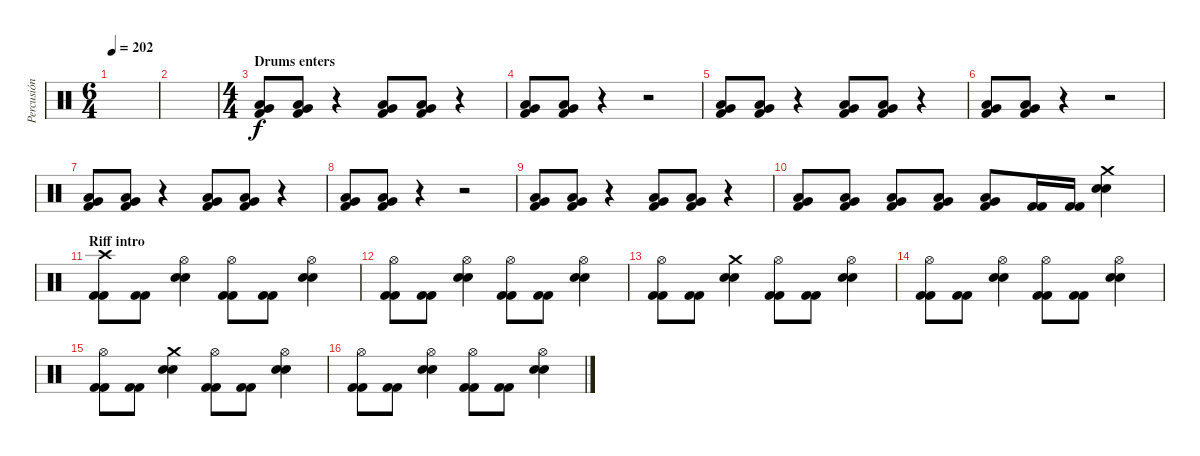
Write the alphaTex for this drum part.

\track ("Percusión" "Percusión") {instrument percussion}
\staff {score}
\articulation defaults
\ts (6 4)
\tempo 202
\clef neutral
\ks c
|
|
\ts (4 4)
\section ("" "Drums enters")
("Very Low Tom (hit)" "Low Tom (hit)" "Kick (hit) 2").8 ("Very Low Tom (hit)" "Low Tom (hit)" "Kick (hit) 2").8 r.4 ("Very Low Tom (hit)" "Low Tom (hit)" "Kick (hit) 2").8 ("Very Low Tom (hit)" "Low Tom (hit)" "Kick (hit) 2").8 r.4 |
("Very Low Tom (hit)" "Low Tom (hit)" "Kick (hit) 2").8 ("Very Low Tom (hit)" "Low Tom (hit)" "Kick (hit) 2").8 r.4 r.2 |
("Very Low Tom (hit)" "Low Tom (hit)" "Kick (hit) 2").8 ("Very Low Tom (hit)" "Low Tom (hit)" "Kick (hit) 2").8 r.4 ("Very Low Tom (hit)" "Low Tom (hit)" "Kick (hit) 2").8 ("Very Low Tom (hit)" "Low Tom (hit)" "Kick (hit) 2").8 r.4 |
("Very Low Tom (hit)" "Low Tom (hit)" "Kick (hit) 2").8 ("Very Low Tom (hit)" "Low Tom (hit)" "Kick (hit) 2").8 r.4 r.2 |
("Very Low Tom (hit)" "Low Tom (hit)" "Kick (hit) 2").8 ("Very Low Tom (hit)" "Low Tom (hit)" "Kick (hit) 2").8 r.4 ("Very Low Tom (hit)" "Low Tom (hit)" "Kick (hit) 2").8 ("Very Low Tom (hit)" "Low Tom (hit)" "Kick (hit) 2").8 r.4 |
("Very Low Tom (hit)" "Low Tom (hit)" "Kick (hit) 2").8 ("Very Low Tom (hit)" "Low Tom (hit)" "Kick (hit) 2").8 r.4 r.2 |
("Very Low Tom (hit)" "Low Tom (hit)" "Kick (hit) 2").8 ("Very Low Tom (hit)" "Low Tom (hit)" "Kick (hit) 2").8 r.4 ("Very Low Tom (hit)" "Low Tom (hit)" "Kick (hit) 2").8 ("Very Low Tom (hit)" "Low Tom (hit)" "Kick (hit) 2").8 r.4 |
("Very Low Tom (hit)" "Low Tom (hit)" "Kick (hit) 2").8 ("Very Low Tom (hit)" "Low Tom (hit)" "Kick (hit) 2").8 ("Very Low Tom (hit)" "Low Tom (hit)" "Kick (hit) 2").8 ("Very Low Tom (hit)" "Low Tom (hit)" "Kick (hit) 2").8 ("Very Low Tom (hit)" "Low Tom (hit)" "Kick (hit) 2").8 ("Kick (hit) 2" "Kick (hit) 2").16 ("Kick (hit) 2" "Kick (hit) 2").16 ("Crash medium (hit)" "Snare (hit) 2" "Snare (hit) 2").4 |
\section ("" "Riff intro")
("Crash high (hit)" "Kick (hit) 2" "Kick (hit) 2").8 ("Kick (hit) 2" "Kick (hit) 2").8 ("Hi-Hat (open)" "Snare (hit) 2" "Snare (hit) 2").4 ("Hi-Hat (open)" "Kick (hit) 2" "Kick (hit) 2").8 ("Kick (hit) 2" "Kick (hit) 2").8 ("Hi-Hat (open)" "Snare (hit) 2" "Snare (hit) 2").4 |
("Hi-Hat (open)" "Kick (hit) 2" "Kick (hit) 2").8 ("Kick (hit) 2" "Kick (hit) 2").8 ("Hi-Hat (open)" "Snare (hit) 2" "Snare (hit) 2").4 ("Hi-Hat (open)" "Kick (hit) 2" "Kick (hit) 2").8 ("Kick (hit) 2" "Kick (hit) 2").8 ("Hi-Hat (open)" "Snare (hit) 2" "Snare (hit) 2").4 |
("Hi-Hat (open)" "Kick (hit) 2" "Kick (hit) 2").8 ("Kick (hit) 2" "Kick (hit) 2").8 ("Crash medium (hit)" "Snare (hit) 2" "Snare (hit) 2").4 ("Hi-Hat (open)" "Kick (hit) 2" "Kick (hit) 2").8 ("Kick (hit) 2" "Kick (hit) 2").8 ("Hi-Hat (open)" "Snare (hit) 2" "Snare (hit) 2").4 |
("Hi-Hat (open)" "Kick (hit) 2" "Kick (hit) 2").8 ("Kick (hit) 2" "Kick (hit) 2").8 ("Hi-Hat (open)" "Snare (hit) 2" "Snare (hit) 2").4 ("Hi-Hat (open)" "Kick (hit) 2" "Kick (hit) 2").8 ("Kick (hit) 2" "Kick (hit) 2").8 ("Hi-Hat (open)" "Snare (hit) 2" "Snare (hit) 2").4 |
("Hi-Hat (open)" "Kick (hit) 2" "Kick (hit) 2").8 ("Kick (hit) 2" "Kick (hit) 2").8 ("Crash medium (hit)" "Snare (hit) 2" "Snare (hit) 2").4 ("Hi-Hat (open)" "Kick (hit) 2" "Kick (hit) 2").8 ("Kick (hit) 2" "Kick (hit) 2").8 ("Hi-Hat (open)" "Snare (hit) 2" "Snare (hit) 2").4 |
("Hi-Hat (open)" "Kick (hit) 2" "Kick (hit) 2").8 ("Kick (hit) 2" "Kick (hit) 2").8 ("Hi-Hat (open)" "Snare (hit) 2" "Snare (hit) 2").4 ("Hi-Hat (open)" "Kick (hit) 2" "Kick (hit) 2").8 ("Kick (hit) 2" "Kick (hit) 2").8 ("Hi-Hat (open)" "Snare (hit) 2" "Snare (hit) 2").4
